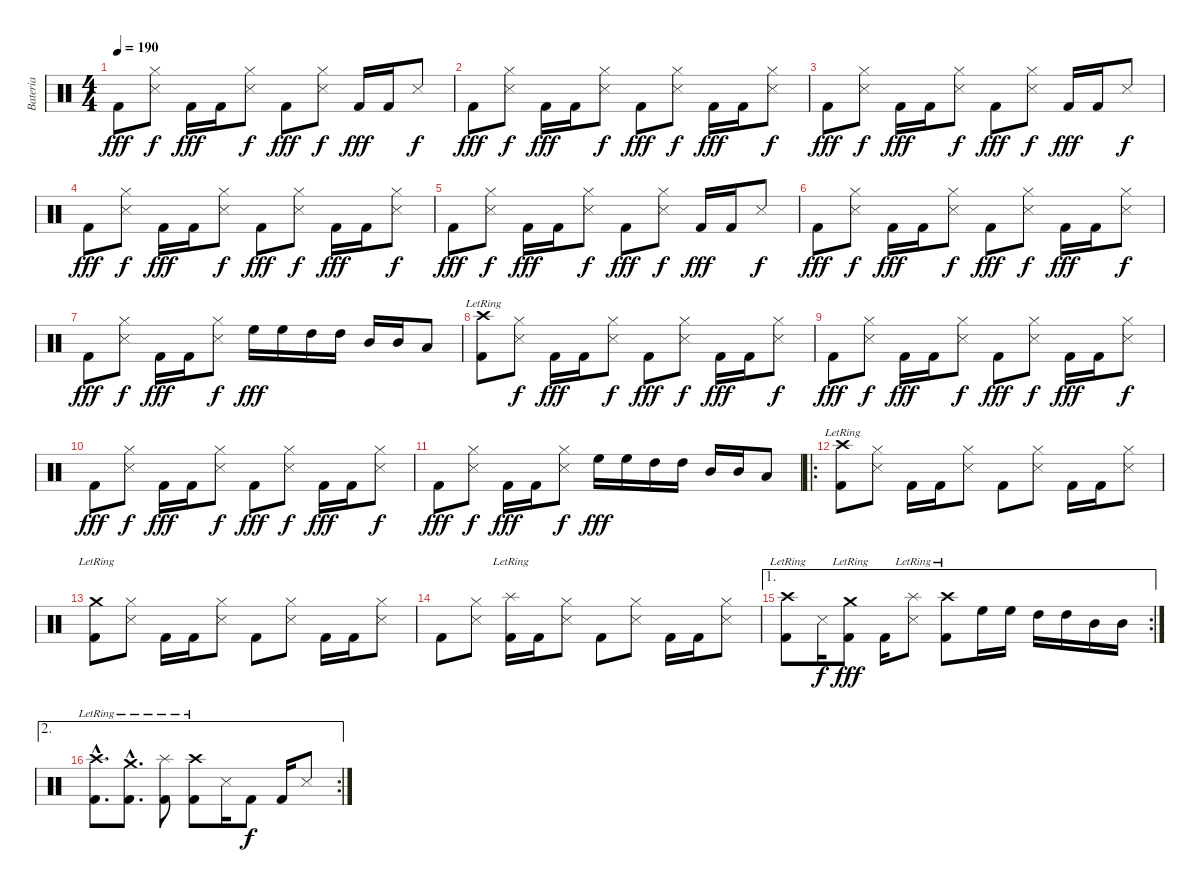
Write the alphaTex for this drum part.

\track ("Bateria" "Bateria") {instrument percussion}
\staff {score}
\articulation defaults
\ts (4 4)
\tempo 190
\clef neutral
\ks c "Kick (hit) 2".8{dy fff}
("Hi-Hat (closed)" "Snare (side stick) 3").8{dy f} "Kick (hit) 2".16{dy fff} "Kick (hit) 2".16 ("Hi-Hat (closed)" "Snare (side stick) 3").8{dy f} "Kick (hit) 2".8{dy fff} ("Hi-Hat (closed)" "Snare (side stick) 3").8{dy f} "Kick (hit) 2".16{dy fff} "Kick (hit) 2".16 "Snare (side stick) 3".8{dy f} |
"Kick (hit) 2".8{dy fff} ("Hi-Hat (closed)" "Snare (side stick) 3").8{dy f} "Kick (hit) 2".16{dy fff} "Kick (hit) 2".16 ("Hi-Hat (closed)" "Snare (side stick) 3").8{dy f} "Kick (hit) 2".8{dy fff} ("Hi-Hat (closed)" "Snare (side stick) 3").8{dy f} "Kick (hit) 2".16{dy fff} "Kick (hit) 2".16 ("Hi-Hat (closed)" "Snare (side stick) 3").8{dy f} |
"Kick (hit) 2".8{dy fff} ("Hi-Hat (closed)" "Snare (side stick) 3").8{dy f} "Kick (hit) 2".16{dy fff} "Kick (hit) 2".16 ("Hi-Hat (closed)" "Snare (side stick) 3").8{dy f} "Kick (hit) 2".8{dy fff} ("Hi-Hat (closed)" "Snare (side stick) 3").8{dy f} "Kick (hit) 2".16{dy fff} "Kick (hit) 2".16 "Snare (side stick) 3".8{dy f} |
"Kick (hit) 2".8{dy fff} ("Hi-Hat (closed)" "Snare (side stick) 3").8{dy f} "Kick (hit) 2".16{dy fff} "Kick (hit) 2".16 ("Hi-Hat (closed)" "Snare (side stick) 3").8{dy f} "Kick (hit) 2".8{dy fff} ("Hi-Hat (closed)" "Snare (side stick) 3").8{dy f} "Kick (hit) 2".16{dy fff} "Kick (hit) 2".16 ("Hi-Hat (closed)" "Snare (side stick) 3").8{dy f} |
"Kick (hit) 2".8{dy fff} ("Hi-Hat (closed)" "Snare (side stick) 3").8{dy f} "Kick (hit) 2".16{dy fff} "Kick (hit) 2".16 ("Hi-Hat (closed)" "Snare (side stick) 3").8{dy f} "Kick (hit) 2".8{dy fff} ("Hi-Hat (closed)" "Snare (side stick) 3").8{dy f} "Kick (hit) 2".16{dy fff} "Kick (hit) 2".16 "Snare (side stick) 3".8{dy f} |
"Kick (hit) 2".8{dy fff} ("Hi-Hat (closed)" "Snare (side stick) 3").8{dy f} "Kick (hit) 2".16{dy fff} "Kick (hit) 2".16 ("Hi-Hat (closed)" "Snare (side stick) 3").8{dy f} "Kick (hit) 2".8{dy fff} ("Hi-Hat (closed)" "Snare (side stick) 3").8{dy f} "Kick (hit) 2".16{dy fff} "Kick (hit) 2".16 ("Hi-Hat (closed)" "Snare (side stick) 3").8{dy f} |
"Kick (hit) 2".8{dy fff} ("Hi-Hat (closed)" "Snare (side stick) 3").8{dy f} "Kick (hit) 2".16{dy fff} "Kick (hit) 2".16 ("Hi-Hat (closed)" "Snare (side stick) 3").8{dy f} "High Floor Tom (hit)".16{dy fff} "High Floor Tom (hit)".16 "High Tom (hit)".16 "High Tom (hit)".16 "Mid Tom (hit)".16 "Mid Tom (hit)".16 "Low Tom (hit)".8 |
("Crash high (hit)"{lr} "Kick (hit) 2").8 ("Hi-Hat (closed)" "Snare (side stick) 3").8{dy f} "Kick (hit) 2".16{dy fff} "Kick (hit) 2".16 ("Hi-Hat (closed)" "Snare (side stick) 3").8{dy f} "Kick (hit) 2".8{dy fff} ("Hi-Hat (closed)" "Snare (side stick) 3").8{dy f} "Kick (hit) 2".16{dy fff} "Kick (hit) 2".16 ("Hi-Hat (closed)" "Snare (side stick) 3").8{dy f} |
"Kick (hit) 2".8{dy fff} ("Hi-Hat (closed)" "Snare (side stick) 3").8{dy f} "Kick (hit) 2".16{dy fff} "Kick (hit) 2".16 ("Hi-Hat (closed)" "Snare (side stick) 3").8{dy f} "Kick (hit) 2".8{dy fff} ("Hi-Hat (closed)" "Snare (side stick) 3").8{dy f} "Kick (hit) 2".16{dy fff} "Kick (hit) 2".16 ("Hi-Hat (closed)" "Snare (side stick) 3").8{dy f} |
"Kick (hit) 2".8{dy fff} ("Hi-Hat (closed)" "Snare (side stick) 3").8{dy f} "Kick (hit) 2".16{dy fff} "Kick (hit) 2".16 ("Hi-Hat (closed)" "Snare (side stick) 3").8{dy f} "Kick (hit) 2".8{dy fff} ("Hi-Hat (closed)" "Snare (side stick) 3").8{dy f} "Kick (hit) 2".16{dy fff} "Kick (hit) 2".16 ("Hi-Hat (closed)" "Snare (side stick) 3").8{dy f} |
"Kick (hit) 2".8{dy fff} ("Hi-Hat (closed)" "Snare (side stick) 3").8{dy f} "Kick (hit) 2".16{dy fff} "Kick (hit) 2".16 ("Hi-Hat (closed)" "Snare (side stick) 3").8{dy f} "High Floor Tom (hit)".16{dy fff} "High Floor Tom (hit)".16 "High Tom (hit)".16 "High Tom (hit)".16 "Mid Tom (hit)".16 "Mid Tom (hit)".16 "Low Tom (hit)".8 |
\ro
("Crash high (hit)"{lr} "Kick (hit) 2").8 ("Hi-Hat (closed)" "Snare (side stick) 3").8 "Kick (hit) 2".16 "Kick (hit) 2".16 ("Hi-Hat (closed)" "Snare (side stick) 3").8 "Kick (hit) 2".8 ("Hi-Hat (closed)" "Snare (side stick) 3").8 "Kick (hit) 2".16 "Kick (hit) 2".16 ("Hi-Hat (closed)" "Snare (side stick) 3").8 |
("Crash medium (hit)"{lr} "Kick (hit) 2").8 ("Hi-Hat (closed)" "Snare (side stick) 3").8 "Kick (hit) 2".16 "Kick (hit) 2".16 ("Hi-Hat (closed)" "Snare (side stick) 3").8 "Kick (hit) 2".8 ("Hi-Hat (closed)" "Snare (side stick) 3").8 "Kick (hit) 2".16 "Kick (hit) 2".16 ("Hi-Hat (closed)" "Snare (side stick) 3").8 |
"Kick (hit) 2".8 ("Hi-Hat (closed)" "Snare (side stick) 3").8 ("Splash (hit)"{lr} "Kick (hit) 2").16 "Kick (hit) 2".16 ("Hi-Hat (closed)" "Snare (side stick) 3").8 "Kick (hit) 2".8 ("Hi-Hat (closed)" "Snare (side stick) 3").8 "Kick (hit) 2".16 "Kick (hit) 2".16 ("Hi-Hat (closed)" "Snare (side stick) 3").8 |
\ae 1
\rc 2
("Crash high (hit)"{lr} "Kick (hit) 2").8 "Snare (side stick) 3".16{dy f} ("Crash medium (hit)"{lr} "Kick (hit) 2").8{dy fff} "Kick (hit) 2".16 ("Splash (hit)"{lr} "Snare (side stick) 3").8 ("Crash high (hit)"{lr} "Kick (hit) 2").8 "High Floor Tom (hit)".16 "High Floor Tom (hit)".16 "High Tom (hit)".16 "High Tom (hit)".16 "Mid Tom (hit)".16 "Mid Tom (hit)".16 |
\ae 2
\rc 2
("Crash high (hit)"{hac lr} "Kick (hit) 2"{hac}).8{d} ("Crash medium (hit)"{hac lr} "Kick (hit) 2"{hac}).8{d} ("Splash (hit)"{lr} "Kick (hit) 2").8 ("Crash high (hit)"{lr} "Kick (hit) 2").8 "Snare (side stick) 3".16 "Kick (hit) 2".8{dy f} "Kick (hit) 2".16 "Snare (side stick) 3".8
